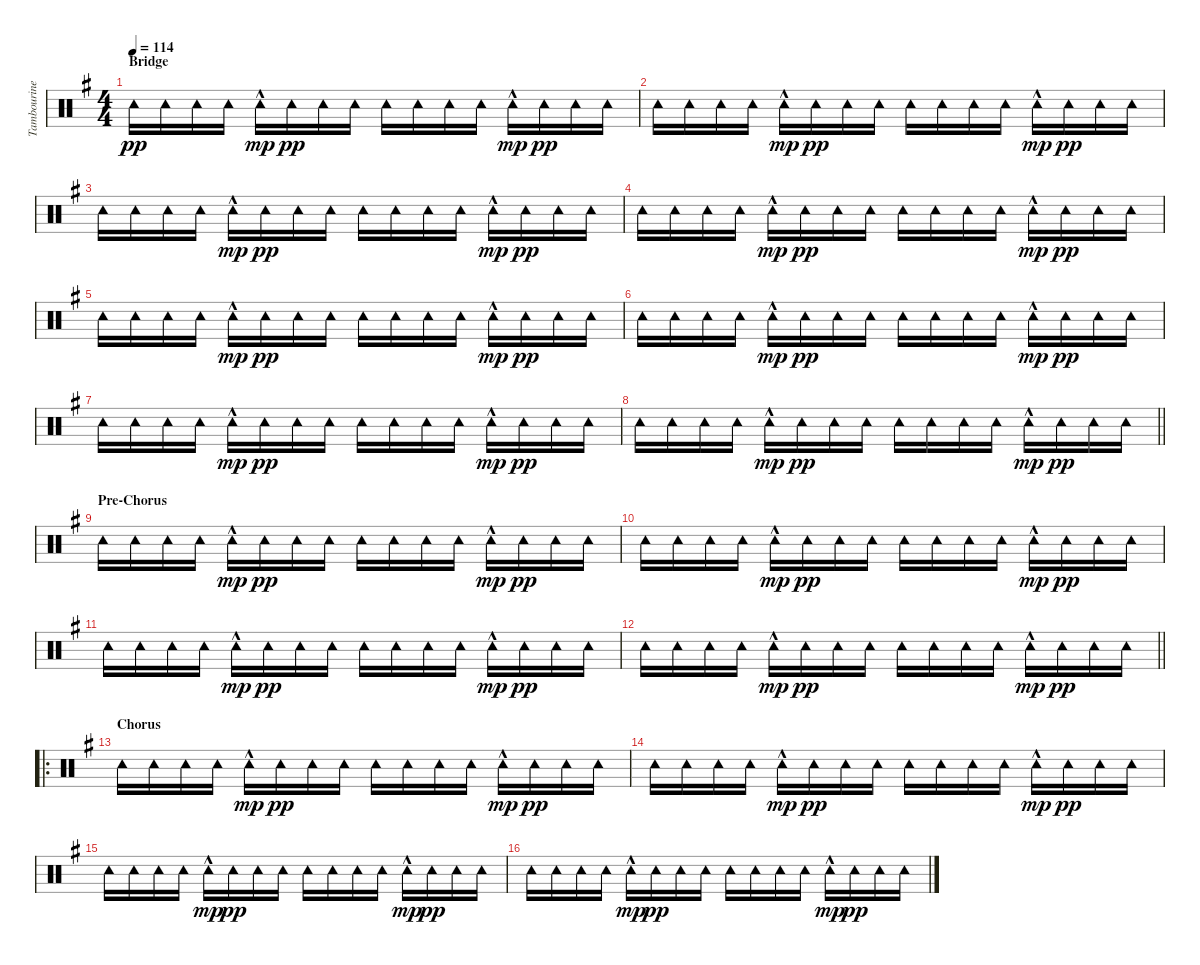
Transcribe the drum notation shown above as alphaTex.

\track ("Tambourine" "Tambourine") {instrument percussion}
\staff {score}
\articulation defaults
\ts (4 4)
\section ("" "Bridge")
\tempo 114
\clef neutral
\ks g "Tambourine (hit)".16{dy pp} "Tambourine (hit)".16 "Tambourine (hit)".16 "Tambourine (hit)".16 "Tambourine (hit)"{hac}.16{dy mp} "Tambourine (hit)".16{dy pp} "Tambourine (hit)".16 "Tambourine (hit)".16 "Tambourine (hit)".16 "Tambourine (hit)".16 "Tambourine (hit)".16 "Tambourine (hit)".16 "Tambourine (hit)"{hac}.16{dy mp} "Tambourine (hit)".16{dy pp} "Tambourine (hit)".16 "Tambourine (hit)".16
|
"Tambourine (hit)".16 "Tambourine (hit)".16 "Tambourine (hit)".16 "Tambourine (hit)".16 "Tambourine (hit)"{hac}.16{dy mp} "Tambourine (hit)".16{dy pp} "Tambourine (hit)".16 "Tambourine (hit)".16 "Tambourine (hit)".16 "Tambourine (hit)".16 "Tambourine (hit)".16 "Tambourine (hit)".16 "Tambourine (hit)"{hac}.16{dy mp} "Tambourine (hit)".16{dy pp} "Tambourine (hit)".16 "Tambourine (hit)".16 |
"Tambourine (hit)".16 "Tambourine (hit)".16 "Tambourine (hit)".16 "Tambourine (hit)".16 "Tambourine (hit)"{hac}.16{dy mp} "Tambourine (hit)".16{dy pp} "Tambourine (hit)".16 "Tambourine (hit)".16 "Tambourine (hit)".16 "Tambourine (hit)".16 "Tambourine (hit)".16 "Tambourine (hit)".16 "Tambourine (hit)"{hac}.16{dy mp} "Tambourine (hit)".16{dy pp} "Tambourine (hit)".16 "Tambourine (hit)".16 |
"Tambourine (hit)".16 "Tambourine (hit)".16 "Tambourine (hit)".16 "Tambourine (hit)".16 "Tambourine (hit)"{hac}.16{dy mp} "Tambourine (hit)".16{dy pp} "Tambourine (hit)".16 "Tambourine (hit)".16 "Tambourine (hit)".16 "Tambourine (hit)".16 "Tambourine (hit)".16 "Tambourine (hit)".16 "Tambourine (hit)"{hac}.16{dy mp} "Tambourine (hit)".16{dy pp} "Tambourine (hit)".16 "Tambourine (hit)".16 |
"Tambourine (hit)".16 "Tambourine (hit)".16 "Tambourine (hit)".16 "Tambourine (hit)".16 "Tambourine (hit)"{hac}.16{dy mp} "Tambourine (hit)".16{dy pp} "Tambourine (hit)".16 "Tambourine (hit)".16 "Tambourine (hit)".16 "Tambourine (hit)".16 "Tambourine (hit)".16 "Tambourine (hit)".16 "Tambourine (hit)"{hac}.16{dy mp} "Tambourine (hit)".16{dy pp} "Tambourine (hit)".16 "Tambourine (hit)".16 |
"Tambourine (hit)".16 "Tambourine (hit)".16 "Tambourine (hit)".16 "Tambourine (hit)".16 "Tambourine (hit)"{hac}.16{dy mp} "Tambourine (hit)".16{dy pp} "Tambourine (hit)".16 "Tambourine (hit)".16 "Tambourine (hit)".16 "Tambourine (hit)".16 "Tambourine (hit)".16 "Tambourine (hit)".16 "Tambourine (hit)"{hac}.16{dy mp} "Tambourine (hit)".16{dy pp} "Tambourine (hit)".16 "Tambourine (hit)".16 |
"Tambourine (hit)".16 "Tambourine (hit)".16 "Tambourine (hit)".16 "Tambourine (hit)".16 "Tambourine (hit)"{hac}.16{dy mp} "Tambourine (hit)".16{dy pp} "Tambourine (hit)".16 "Tambourine (hit)".16 "Tambourine (hit)".16 "Tambourine (hit)".16 "Tambourine (hit)".16 "Tambourine (hit)".16 "Tambourine (hit)"{hac}.16{dy mp} "Tambourine (hit)".16{dy pp} "Tambourine (hit)".16 "Tambourine (hit)".16 |
\barLineRight lightlight "Tambourine (hit)".16 "Tambourine (hit)".16 "Tambourine (hit)".16 "Tambourine (hit)".16 "Tambourine (hit)"{hac}.16{dy mp} "Tambourine (hit)".16{dy pp} "Tambourine (hit)".16 "Tambourine (hit)".16 "Tambourine (hit)".16 "Tambourine (hit)".16 "Tambourine (hit)".16 "Tambourine (hit)".16 "Tambourine (hit)"{hac}.16{dy mp} "Tambourine (hit)".16{dy pp} "Tambourine (hit)".16 "Tambourine (hit)".16
|
\section ("" "Pre-Chorus")
"Tambourine (hit)".16 "Tambourine (hit)".16 "Tambourine (hit)".16 "Tambourine (hit)".16 "Tambourine (hit)"{hac}.16{dy mp} "Tambourine (hit)".16{dy pp} "Tambourine (hit)".16 "Tambourine (hit)".16 "Tambourine (hit)".16 "Tambourine (hit)".16 "Tambourine (hit)".16 "Tambourine (hit)".16 "Tambourine (hit)"{hac}.16{dy mp} "Tambourine (hit)".16{dy pp} "Tambourine (hit)".16 "Tambourine (hit)".16 |
"Tambourine (hit)".16 "Tambourine (hit)".16 "Tambourine (hit)".16 "Tambourine (hit)".16 "Tambourine (hit)"{hac}.16{dy mp} "Tambourine (hit)".16{dy pp} "Tambourine (hit)".16 "Tambourine (hit)".16 "Tambourine (hit)".16 "Tambourine (hit)".16 "Tambourine (hit)".16 "Tambourine (hit)".16 "Tambourine (hit)"{hac}.16{dy mp} "Tambourine (hit)".16{dy pp} "Tambourine (hit)".16 "Tambourine (hit)".16 |
"Tambourine (hit)".16 "Tambourine (hit)".16 "Tambourine (hit)".16 "Tambourine (hit)".16 "Tambourine (hit)"{hac}.16{dy mp} "Tambourine (hit)".16{dy pp} "Tambourine (hit)".16 "Tambourine (hit)".16 "Tambourine (hit)".16 "Tambourine (hit)".16 "Tambourine (hit)".16 "Tambourine (hit)".16 "Tambourine (hit)"{hac}.16{dy mp} "Tambourine (hit)".16{dy pp} "Tambourine (hit)".16 "Tambourine (hit)".16 |
\barLineRight lightlight "Tambourine (hit)".16 "Tambourine (hit)".16 "Tambourine (hit)".16 "Tambourine (hit)".16 "Tambourine (hit)"{hac}.16{dy mp} "Tambourine (hit)".16{dy pp} "Tambourine (hit)".16 "Tambourine (hit)".16 "Tambourine (hit)".16 "Tambourine (hit)".16 "Tambourine (hit)".16 "Tambourine (hit)".16 "Tambourine (hit)"{hac}.16{dy mp} "Tambourine (hit)".16{dy pp} "Tambourine (hit)".16 "Tambourine (hit)".16
|
\ro
\section ("" "Chorus")
"Tambourine (hit)".16 "Tambourine (hit)".16 "Tambourine (hit)".16 "Tambourine (hit)".16 "Tambourine (hit)"{hac}.16{dy mp} "Tambourine (hit)".16{dy pp} "Tambourine (hit)".16 "Tambourine (hit)".16 "Tambourine (hit)".16 "Tambourine (hit)".16 "Tambourine (hit)".16 "Tambourine (hit)".16 "Tambourine (hit)"{hac}.16{dy mp} "Tambourine (hit)".16{dy pp} "Tambourine (hit)".16 "Tambourine (hit)".16 |
"Tambourine (hit)".16 "Tambourine (hit)".16 "Tambourine (hit)".16 "Tambourine (hit)".16 "Tambourine (hit)"{hac}.16{dy mp} "Tambourine (hit)".16{dy pp} "Tambourine (hit)".16 "Tambourine (hit)".16 "Tambourine (hit)".16 "Tambourine (hit)".16 "Tambourine (hit)".16 "Tambourine (hit)".16 "Tambourine (hit)"{hac}.16{dy mp} "Tambourine (hit)".16{dy pp} "Tambourine (hit)".16 "Tambourine (hit)".16 |
"Tambourine (hit)".16 "Tambourine (hit)".16 "Tambourine (hit)".16 "Tambourine (hit)".16 "Tambourine (hit)"{hac}.16{dy mp} "Tambourine (hit)".16{dy pp} "Tambourine (hit)".16 "Tambourine (hit)".16 "Tambourine (hit)".16 "Tambourine (hit)".16 "Tambourine (hit)".16 "Tambourine (hit)".16 "Tambourine (hit)"{hac}.16{dy mp} "Tambourine (hit)".16{dy pp} "Tambourine (hit)".16 "Tambourine (hit)".16 |
"Tambourine (hit)".16 "Tambourine (hit)".16 "Tambourine (hit)".16 "Tambourine (hit)".16 "Tambourine (hit)"{hac}.16{dy mp} "Tambourine (hit)".16{dy pp} "Tambourine (hit)".16 "Tambourine (hit)".16 "Tambourine (hit)".16 "Tambourine (hit)".16 "Tambourine (hit)".16 "Tambourine (hit)".16 "Tambourine (hit)"{hac}.16{dy mp} "Tambourine (hit)".16{dy pp} "Tambourine (hit)".16 "Tambourine (hit)".16
